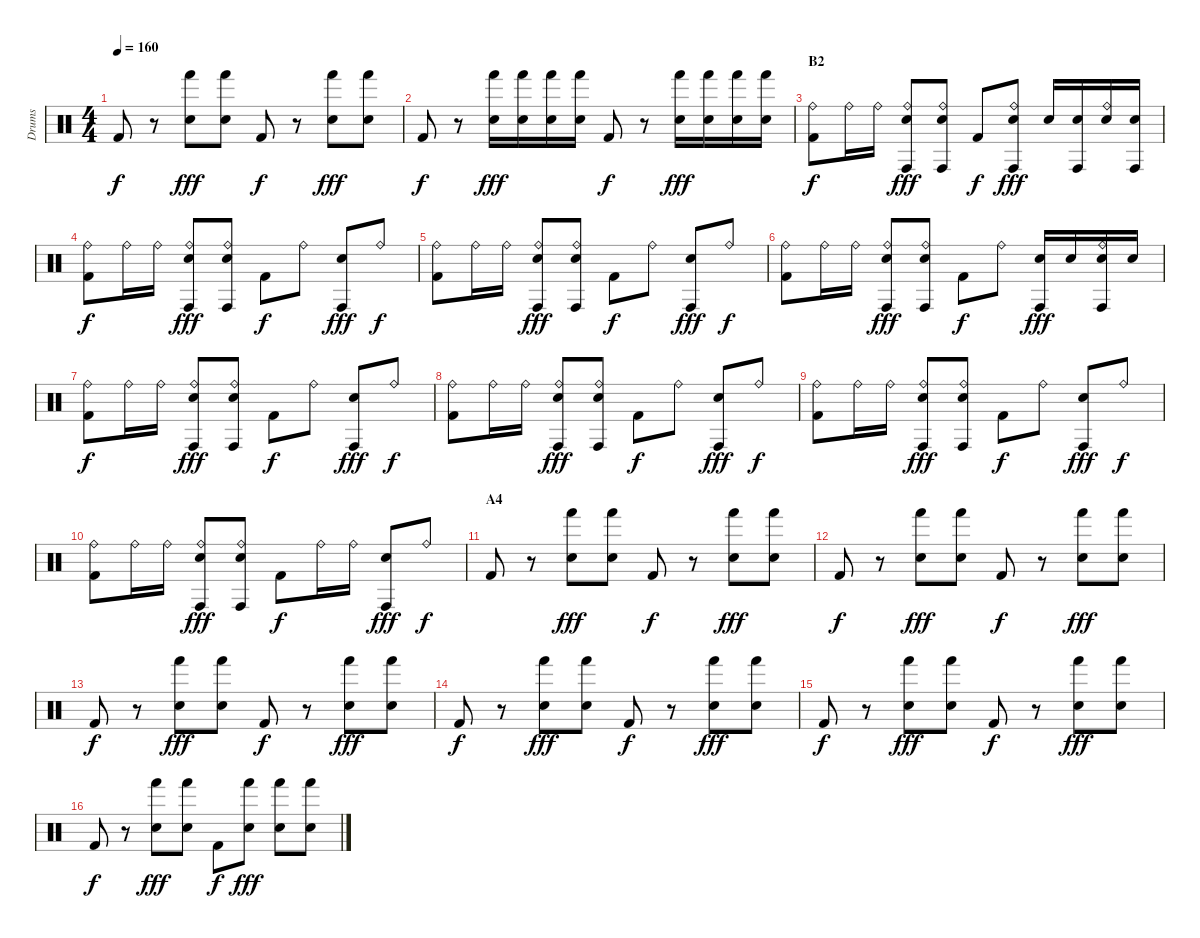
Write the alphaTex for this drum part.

\track ("Drums" "Drums") {instrument percussion}
\staff {score}
\articulation defaults
\ts (4 4)
\tempo 160
\clef neutral
\ks c "Kick (hit) 2".8{dy f}
r.8 ("Hand (hit)" "Electric Snare (hit)").8{dy fff} ("Hand (hit)" "Electric Snare (hit)").8 "Kick (hit) 2".8{dy f} r.8 ("Hand (hit)" "Electric Snare (hit)").8{dy fff} ("Hand (hit)" "Electric Snare (hit)").8 |
"Kick (hit) 2".8{dy f} r.8 ("Hand (hit)" "Electric Snare (hit)").16{dy fff} ("Hand (hit)" "Electric Snare (hit)").16 ("Hand (hit)" "Electric Snare (hit)").16 ("Hand (hit)" "Electric Snare (hit)").16 "Kick (hit) 2".8{dy f} r.8 ("Hand (hit)" "Electric Snare (hit)").16{dy fff} ("Hand (hit)" "Electric Snare (hit)").16 ("Hand (hit)" "Electric Snare (hit)").16 ("Hand (hit)" "Electric Snare (hit)").16 |
\section ("" "B2")
("Ride (bell)" "Kick (hit) 2").8{dy f} "Ride (bell)".16 "Ride (bell)".16 ("Ride (bell)" "Conga high (hit)" "Electric Snare (hit)").8{dy fff} ("Ride (bell)" "Conga high (hit)" "Electric Snare (hit)").8 "Kick (hit) 2".8{dy f} ("Ride (bell)" "Conga high (hit)" "Electric Snare (hit)").8{dy fff} "Electric Snare (hit)".16 ("Conga high (hit)" "Electric Snare (hit)").16 ("Ride (bell)" "Electric Snare (hit)").16 ("Conga high (hit)" "Electric Snare (hit)").16 |
("Ride (bell)" "Kick (hit) 2").8{dy f} "Ride (bell)".16 "Ride (bell)".16 ("Ride (bell)" "Conga high (hit)" "Electric Snare (hit)").8{dy fff} ("Ride (bell)" "Conga high (hit)" "Electric Snare (hit)").8 "Kick (hit) 2".8{dy f} "Ride (bell)".8 ("Conga high (hit)" "Electric Snare (hit)").8{dy fff} "Ride (bell)".8{dy f} |
("Ride (bell)" "Kick (hit) 2").8 "Ride (bell)".16 "Ride (bell)".16 ("Ride (bell)" "Conga high (hit)" "Electric Snare (hit)").8{dy fff} ("Ride (bell)" "Conga high (hit)" "Electric Snare (hit)").8 "Kick (hit) 2".8{dy f} "Ride (bell)".8 ("Conga high (hit)" "Electric Snare (hit)").8{dy fff} "Ride (bell)".8{dy f} |
("Ride (bell)" "Kick (hit) 2").8 "Ride (bell)".16 "Ride (bell)".16 ("Ride (bell)" "Conga high (hit)" "Electric Snare (hit)").8{dy fff} ("Ride (bell)" "Conga high (hit)" "Electric Snare (hit)").8 "Kick (hit) 2".8{dy f} "Ride (bell)".8 ("Conga high (hit)" "Electric Snare (hit)").16{dy fff} "Electric Snare (hit)".16 ("Ride (bell)" "Conga high (hit)" "Electric Snare (hit)").16 "Electric Snare (hit)".16 |
("Ride (bell)" "Kick (hit) 2").8{dy f} "Ride (bell)".16 "Ride (bell)".16 ("Ride (bell)" "Conga high (hit)" "Electric Snare (hit)").8{dy fff} ("Ride (bell)" "Conga high (hit)" "Electric Snare (hit)").8 "Kick (hit) 2".8{dy f} "Ride (bell)".8 ("Conga high (hit)" "Electric Snare (hit)").8{dy fff} "Ride (bell)".8{dy f} |
("Ride (bell)" "Kick (hit) 2").8 "Ride (bell)".16 "Ride (bell)".16 ("Ride (bell)" "Conga high (hit)" "Electric Snare (hit)").8{dy fff} ("Ride (bell)" "Conga high (hit)" "Electric Snare (hit)").8 "Kick (hit) 2".8{dy f} "Ride (bell)".8 ("Conga high (hit)" "Electric Snare (hit)").8{dy fff} "Ride (bell)".8{dy f} |
("Ride (bell)" "Kick (hit) 2").8 "Ride (bell)".16 "Ride (bell)".16 ("Ride (bell)" "Conga high (hit)" "Electric Snare (hit)").8{dy fff} ("Ride (bell)" "Conga high (hit)" "Electric Snare (hit)").8 "Kick (hit) 2".8{dy f} "Ride (bell)".8 ("Conga high (hit)" "Electric Snare (hit)").8{dy fff} "Ride (bell)".8{dy f} |
("Ride (bell)" "Kick (hit) 2").8 "Ride (bell)".16 "Ride (bell)".16 ("Ride (bell)" "Conga high (hit)" "Electric Snare (hit)").8{dy fff} ("Ride (bell)" "Conga high (hit)" "Electric Snare (hit)").8 "Kick (hit) 2".8{dy f} "Ride (bell)".16 "Ride (bell)".16 ("Conga high (hit)" "Electric Snare (hit)").8{dy fff} "Ride (bell)".8{dy f} |
\section ("" "A4")
"Kick (hit) 2".8 r.8 ("Hand (hit)" "Electric Snare (hit)").8{dy fff} ("Hand (hit)" "Electric Snare (hit)").8 "Kick (hit) 2".8{dy f} r.8 ("Hand (hit)" "Electric Snare (hit)").8{dy fff} ("Hand (hit)" "Electric Snare (hit)").8 |
"Kick (hit) 2".8{dy f} r.8 ("Hand (hit)" "Electric Snare (hit)").8{dy fff} ("Hand (hit)" "Electric Snare (hit)").8 "Kick (hit) 2".8{dy f} r.8 ("Hand (hit)" "Electric Snare (hit)").8{dy fff} ("Hand (hit)" "Electric Snare (hit)").8 |
"Kick (hit) 2".8{dy f} r.8 ("Hand (hit)" "Electric Snare (hit)").8{dy fff} ("Hand (hit)" "Electric Snare (hit)").8 "Kick (hit) 2".8{dy f} r.8 ("Hand (hit)" "Electric Snare (hit)").8{dy fff} ("Hand (hit)" "Electric Snare (hit)").8 |
"Kick (hit) 2".8{dy f} r.8 ("Hand (hit)" "Electric Snare (hit)").8{dy fff} ("Hand (hit)" "Electric Snare (hit)").8 "Kick (hit) 2".8{dy f} r.8 ("Hand (hit)" "Electric Snare (hit)").8{dy fff} ("Hand (hit)" "Electric Snare (hit)").8 |
"Kick (hit) 2".8{dy f} r.8 ("Hand (hit)" "Electric Snare (hit)").8{dy fff} ("Hand (hit)" "Electric Snare (hit)").8 "Kick (hit) 2".8{dy f} r.8 ("Hand (hit)" "Electric Snare (hit)").8{dy fff} ("Hand (hit)" "Electric Snare (hit)").8 |
"Kick (hit) 2".8{dy f} r.8 ("Hand (hit)" "Electric Snare (hit)").8{dy fff} ("Hand (hit)" "Electric Snare (hit)").8 "Kick (hit) 2".8{dy f} ("Hand (hit)" "Electric Snare (hit)").8{dy fff} ("Hand (hit)" "Electric Snare (hit)").8 ("Hand (hit)" "Electric Snare (hit)").8
